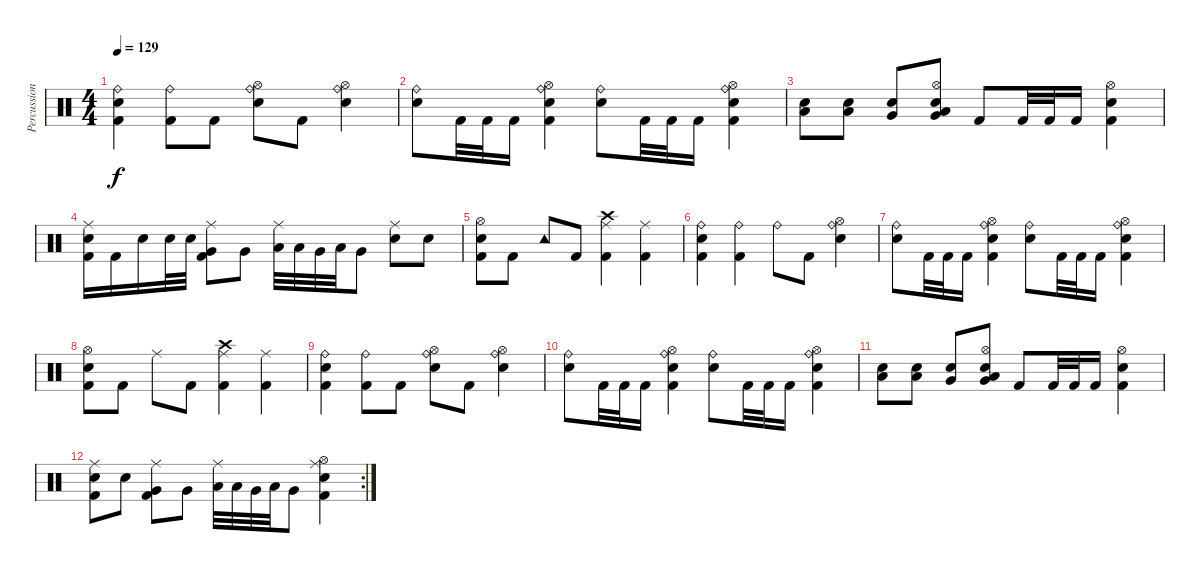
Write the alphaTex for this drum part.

\track ("Percussion" "Percussion") {instrument percussion}
\staff {score}
\articulation defaults
\ts (4 4)
\tempo 129
\clef neutral
\ks c
("Ride (bell)" "Electric Snare (hit)" "Kick (hit) 2").4{dy f} ("Ride (bell)" "Kick (hit) 2").8 "Kick (hit) 2".8 ("Ride (bell)" "Hi-Hat (open)" "Electric Snare (hit)").8 "Kick (hit) 2".8 ("Ride (bell)" "Hi-Hat (open)" "Electric Snare (hit)").4 |
("Ride (bell)" "Electric Snare (hit)").8 "Kick (hit) 2".32 "Kick (hit) 2".32 "Kick (hit) 2".16 ("Ride (bell)" "Hi-Hat (open)" "Kick (hit) 2" "Electric Snare (hit)").4 ("Ride (bell)" "Electric Snare (hit)").8 "Kick (hit) 2".32 "Kick (hit) 2".32 "Kick (hit) 2".16 ("Ride (bell)" "Hi-Hat (open)" "Kick (hit) 2" "Electric Snare (hit)").4 |
("Low Tom (hit)" "Electric Snare (hit)").8 ("Low Tom (hit)" "Electric Snare (hit)").8 ("Very Low Tom (hit)" "Electric Snare (hit)").8 ("Hi-Hat (open)" "Very Low Tom (hit)" "Low Tom (hit)" "Electric Snare (hit)").8 "Kick (hit) 2".8 "Kick (hit) 2".32 "Kick (hit) 2".32 "Kick (hit) 2".16 ("Hi-Hat (open)" "Kick (hit) 2" "Electric Snare (hit)").4 |
("Ride (middle)" "Electric Snare (hit)" "Kick (hit) 2").16 "Kick (hit) 2".16 "Electric Snare (hit)".16 "Electric Snare (hit)".32 "Electric Snare (hit)".32 ("Ride (middle)" "Very Low Tom (hit)" "Kick (hit) 2").8 "Very Low Tom (hit)".8 ("Ride (middle)" "Low Tom (hit)").32 "Low Tom (hit)".32 "Very Low Tom (hit)".32 "Low Floor Tom (hit)".32 "Very Low Tom (hit)".8 ("Ride (middle)" "Electric Snare (hit)").8 "Electric Snare (hit)".8 |
("Hi-Hat (open)" "Electric Snare (hit)" "Kick (hit) 2").8 "Kick (hit) 2".8 "Tambourine (hit)".8 "Kick (hit) 2".8 ("Ride (middle)" "Crash high (hit)" "Kick (hit) 2").4 ("Ride (middle)" "Kick (hit) 2").4 |
("Ride (bell)" "Electric Snare (hit)" "Kick (hit) 2").4 ("Ride (bell)" "Kick (hit) 2").4 "Ride (bell)".8 "Kick (hit) 2".8 ("Ride (bell)" "Hi-Hat (open)" "Electric Snare (hit)").4 |
("Ride (bell)" "Electric Snare (hit)").8 "Kick (hit) 2".32 "Kick (hit) 2".32 "Kick (hit) 2".16 ("Ride (bell)" "Hi-Hat (open)" "Kick (hit) 2" "Electric Snare (hit)").4 ("Ride (bell)" "Electric Snare (hit)").8 "Kick (hit) 2".32 "Kick (hit) 2".32 "Kick (hit) 2".16 ("Ride (bell)" "Hi-Hat (open)" "Kick (hit) 2" "Electric Snare (hit)").4 |
("Hi-Hat (open)" "Electric Snare (hit)" "Kick (hit) 2").8 "Kick (hit) 2".8 "Ride (middle)".8 "Kick (hit) 2".8 ("Ride (middle)" "Crash high (hit)" "Kick (hit) 2").4 ("Ride (middle)" "Kick (hit) 2").4 |
("Ride (bell)" "Electric Snare (hit)" "Kick (hit) 2").4 ("Ride (bell)" "Kick (hit) 2").8 "Kick (hit) 2".8 ("Ride (bell)" "Hi-Hat (open)" "Electric Snare (hit)").8 "Kick (hit) 2".8 ("Ride (bell)" "Hi-Hat (open)" "Electric Snare (hit)").4 |
("Ride (bell)" "Electric Snare (hit)").8 "Kick (hit) 2".32 "Kick (hit) 2".32 "Kick (hit) 2".16 ("Ride (bell)" "Hi-Hat (open)" "Kick (hit) 2" "Electric Snare (hit)").4 ("Ride (bell)" "Electric Snare (hit)").8 "Kick (hit) 2".32 "Kick (hit) 2".32 "Kick (hit) 2".16 ("Ride (bell)" "Hi-Hat (open)" "Kick (hit) 2" "Electric Snare (hit)").4 |
("Low Tom (hit)" "Electric Snare (hit)").8 ("Low Tom (hit)" "Electric Snare (hit)").8 ("Very Low Tom (hit)" "Electric Snare (hit)").8 ("Hi-Hat (open)" "Very Low Tom (hit)" "Low Tom (hit)" "Electric Snare (hit)").8 "Kick (hit) 2".8 "Kick (hit) 2".32 "Kick (hit) 2".32 "Kick (hit) 2".16 ("Hi-Hat (open)" "Kick (hit) 2" "Electric Snare (hit)").4 |
\rc 2
("Ride (middle)" "Electric Snare (hit)" "Kick (hit) 2").8 "Electric Snare (hit)".8 ("Ride (middle)" "Very Low Tom (hit)" "Kick (hit) 2").8 "Very Low Tom (hit)".8 ("Ride (middle)" "Low Tom (hit)").32 "Low Tom (hit)".32 "Very Low Tom (hit)".32 "Low Floor Tom (hit)".32 "Very Low Tom (hit)".8 ("Ride (middle)" "Hi-Hat (open)" "Electric Snare (hit)" "Kick (hit) 2").4
